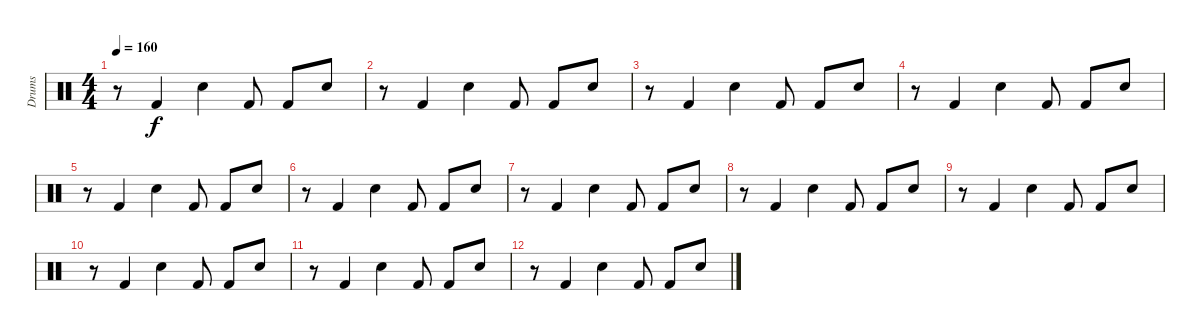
\track ("Drums" "Drums") {instrument percussion}
\staff {score}
\articulation defaults
\ts (4 4)
\tempo 160
\clef neutral
\ks c
r.8{dy f} "Kick (hit) 2".4 "Snare (hit) 2".4 "Kick (hit) 2".8 "Kick (hit) 2".8 "Snare (hit) 2".8 |
r.8 "Kick (hit) 2".4 "Snare (hit) 2".4 "Kick (hit) 2".8 "Kick (hit) 2".8 "Snare (hit) 2".8 |
r.8 "Kick (hit) 2".4 "Snare (hit) 2".4 "Kick (hit) 2".8 "Kick (hit) 2".8 "Snare (hit) 2".8 |
r.8 "Kick (hit) 2".4 "Snare (hit) 2".4 "Kick (hit) 2".8 "Kick (hit) 2".8 "Snare (hit) 2".8 |
r.8 "Kick (hit) 2".4 "Snare (hit) 2".4 "Kick (hit) 2".8 "Kick (hit) 2".8 "Snare (hit) 2".8 |
r.8 "Kick (hit) 2".4 "Snare (hit) 2".4 "Kick (hit) 2".8 "Kick (hit) 2".8 "Snare (hit) 2".8 |
r.8 "Kick (hit) 2".4 "Snare (hit) 2".4 "Kick (hit) 2".8 "Kick (hit) 2".8 "Snare (hit) 2".8 |
r.8 "Kick (hit) 2".4 "Snare (hit) 2".4 "Kick (hit) 2".8 "Kick (hit) 2".8 "Snare (hit) 2".8 |
r.8 "Kick (hit) 2".4 "Snare (hit) 2".4 "Kick (hit) 2".8 "Kick (hit) 2".8 "Snare (hit) 2".8 |
r.8 "Kick (hit) 2".4 "Snare (hit) 2".4 "Kick (hit) 2".8 "Kick (hit) 2".8 "Snare (hit) 2".8 |
r.8 "Kick (hit) 2".4 "Snare (hit) 2".4 "Kick (hit) 2".8 "Kick (hit) 2".8 "Snare (hit) 2".8 |
r.8 "Kick (hit) 2".4 "Snare (hit) 2".4 "Kick (hit) 2".8 "Kick (hit) 2".8 "Snare (hit) 2".8
